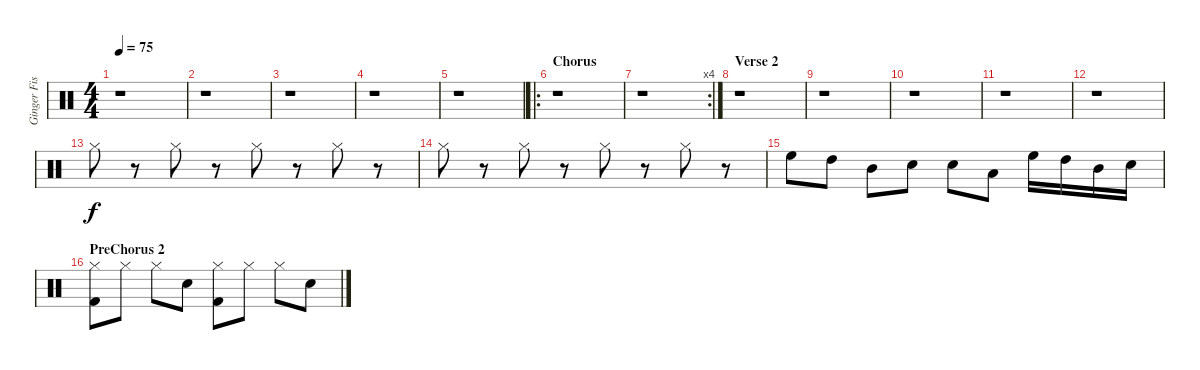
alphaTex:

\track ("Ginger Fish" "Ginger Fis") {instrument percussion}
\staff {score}
\articulation defaults
\ts (4 4)
\tempo 75
\clef neutral
\ks c
r.1{dy f} |
r.1 |
r.1 |
r.1 |
r.1 |
\ro
\section ("" "Chorus")
r.1 |
\rc 4
r.1 |
\section ("" "Verse 2")
r.1 |
r.1 |
r.1 |
r.1 |
r.1 |
"Hi-Hat (closed)".8 r.8 "Hi-Hat (closed)".8 r.8 "Hi-Hat (closed)".8 r.8 "Hi-Hat (closed)".8 r.8 |
"Hi-Hat (closed)".8 r.8 "Hi-Hat (closed)".8 r.8 "Hi-Hat (closed)".8 r.8 "Hi-Hat (closed)".8 r.8 |
"High Floor Tom (hit)".8 "High Tom (hit)".8 "Mid Tom (hit)".8 "Snare (hit) 2".8 "Snare (hit) 2".8 "Low Floor Tom (hit)".8 "High Floor Tom (hit)".16 "High Tom (hit)".16 "Mid Tom (hit)".16 "Snare (hit) 2".16 |
\section ("" "PreChorus 2")
("Hi-Hat (closed)" "Kick (hit) 2").8 "Hi-Hat (closed)".8 "Hi-Hat (closed)".8 "Snare (hit) 2".8 ("Hi-Hat (closed)" "Kick (hit) 2").8 "Hi-Hat (closed)".8 "Hi-Hat (closed)".8 "Snare (hit) 2".8
